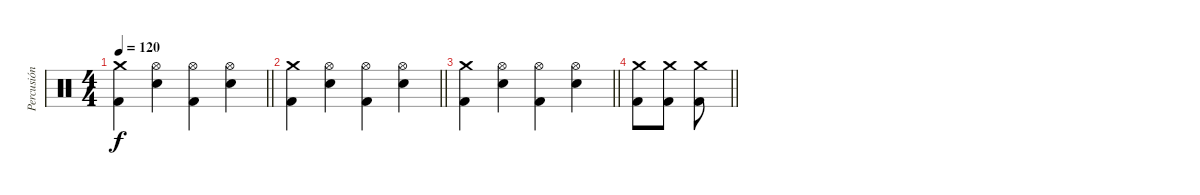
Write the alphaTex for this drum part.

\track ("Percusión" "Percusión") {instrument percussion}
\staff {score}
\articulation defaults
\ts (4 4)
\tempo 120
\clef neutral
\barLineRight lightlight
\ks c
("Crash medium (hit)" "Kick (hit) 2").4{dy f} ("Hi-Hat (open)" "Snare (hit) 2").4 ("Hi-Hat (open)" "Kick (hit) 2").4 ("Hi-Hat (open)" "Snare (hit) 2").4 |
\barLineRight lightlight
("Crash medium (hit)" "Kick (hit) 2").4 ("Hi-Hat (open)" "Snare (hit) 2").4 ("Hi-Hat (open)" "Kick (hit) 2").4 ("Hi-Hat (open)" "Snare (hit) 2").4 |
\barLineRight lightlight
("Crash medium (hit)" "Kick (hit) 2").4 ("Hi-Hat (open)" "Snare (hit) 2").4 ("Hi-Hat (open)" "Kick (hit) 2").4 ("Hi-Hat (open)" "Snare (hit) 2").4 |
\barLineRight lightlight
("Crash medium (hit)" "Kick (hit) 2").8 ("Crash medium (hit)" "Kick (hit) 2").8 ("Crash medium (hit)" "Kick (hit) 2").8
